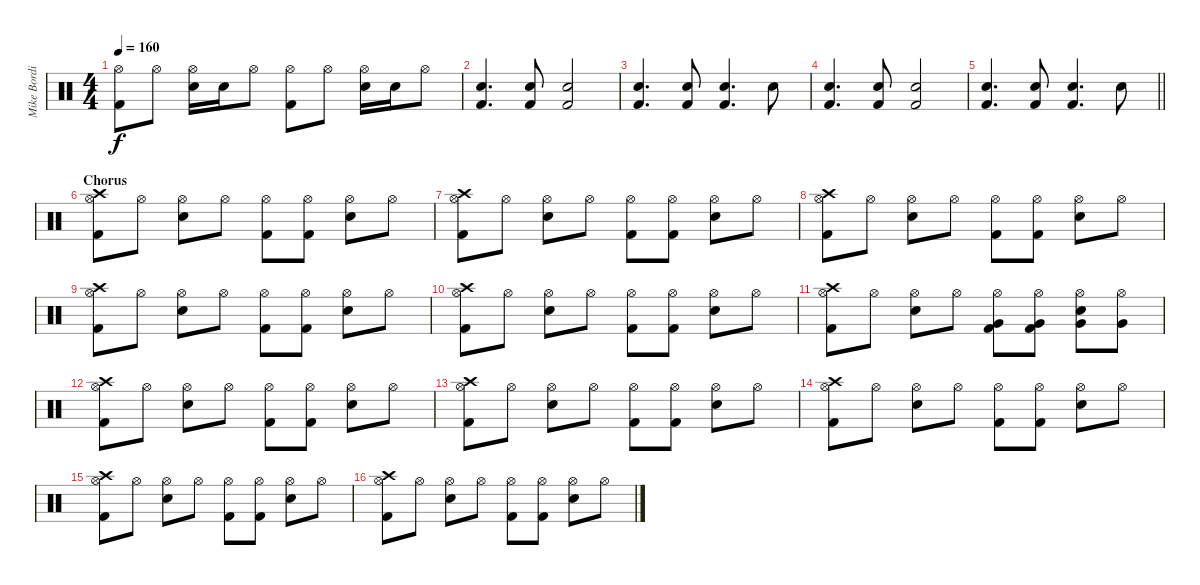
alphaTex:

\track ("Mike Bordin - Drums" "Mike Bordi") {instrument percussion}
\staff {score}
\articulation defaults
\ts (4 4)
\tempo 160
\clef neutral
\ks c
("Hi-Hat (open)" "Kick (hit) 2").8{dy f} "Hi-Hat (open)".8 ("Hi-Hat (open)" "Snare (hit) 2").16 "Snare (hit) 2".16 "Hi-Hat (open)".8 ("Hi-Hat (open)" "Kick (hit) 2").8 "Hi-Hat (open)".8 ("Hi-Hat (open)" "Snare (hit) 2").16 "Snare (hit) 2".16 "Hi-Hat (open)".8 |
("Snare (hit) 2" "Kick (hit) 2").4{d} ("Snare (hit) 2" "Kick (hit) 2").8 ("Snare (hit) 2" "Kick (hit) 2").2 |
("Snare (hit) 2" "Kick (hit) 2").4{d} ("Snare (hit) 2" "Kick (hit) 2").8 ("Snare (hit) 2" "Kick (hit) 2").4{d} "Snare (hit) 2".8 |
("Snare (hit) 2" "Kick (hit) 2").4{d} ("Snare (hit) 2" "Kick (hit) 2").8 ("Snare (hit) 2" "Kick (hit) 2").2 |
\barLineRight lightlight
("Snare (hit) 2" "Kick (hit) 2").4{d} ("Snare (hit) 2" "Kick (hit) 2").8 ("Snare (hit) 2" "Kick (hit) 2").4{d} "Snare (hit) 2".8 |
\section ("" "Chorus")
("Crash high (hit)" "Hi-Hat (open)" "Kick (hit) 2").8 "Hi-Hat (open)".8 ("Hi-Hat (open)" "Snare (hit) 2").8 "Hi-Hat (open)".8 ("Hi-Hat (open)" "Kick (hit) 2").8 ("Hi-Hat (open)" "Kick (hit) 2").8 ("Hi-Hat (open)" "Snare (hit) 2").8 "Hi-Hat (open)".8 |
("Crash high (hit)" "Hi-Hat (open)" "Kick (hit) 2").8 "Hi-Hat (open)".8 ("Hi-Hat (open)" "Snare (hit) 2").8 "Hi-Hat (open)".8 ("Hi-Hat (open)" "Kick (hit) 2").8 ("Hi-Hat (open)" "Kick (hit) 2").8 ("Hi-Hat (open)" "Snare (hit) 2").8 "Hi-Hat (open)".8 |
("Crash high (hit)" "Hi-Hat (open)" "Kick (hit) 2").8 "Hi-Hat (open)".8 ("Hi-Hat (open)" "Snare (hit) 2").8 "Hi-Hat (open)".8 ("Hi-Hat (open)" "Kick (hit) 2").8 ("Hi-Hat (open)" "Kick (hit) 2").8 ("Hi-Hat (open)" "Snare (hit) 2").8 "Hi-Hat (open)".8 |
("Crash high (hit)" "Hi-Hat (open)" "Kick (hit) 2").8 "Hi-Hat (open)".8 ("Hi-Hat (open)" "Snare (hit) 2").8 "Hi-Hat (open)".8 ("Hi-Hat (open)" "Kick (hit) 2").8 ("Hi-Hat (open)" "Kick (hit) 2").8 ("Hi-Hat (open)" "Snare (hit) 2").8 "Hi-Hat (open)".8 |
("Crash high (hit)" "Hi-Hat (open)" "Kick (hit) 2").8 "Hi-Hat (open)".8 ("Hi-Hat (open)" "Snare (hit) 2").8 "Hi-Hat (open)".8 ("Hi-Hat (open)" "Kick (hit) 2").8 ("Hi-Hat (open)" "Kick (hit) 2").8 ("Hi-Hat (open)" "Snare (hit) 2").8 "Hi-Hat (open)".8 |
("Crash high (hit)" "Hi-Hat (open)" "Kick (hit) 2").8 "Hi-Hat (open)".8 ("Hi-Hat (open)" "Snare (hit) 2").8 "Hi-Hat (open)".8 ("Hi-Hat (open)" "Very Low Tom (hit)" "Kick (hit) 2").8 ("Hi-Hat (open)" "Very Low Tom (hit)" "Kick (hit) 2").8 ("Hi-Hat (open)" "Snare (hit) 2" "Very Low Tom (hit)").8 ("Hi-Hat (open)" "Very Low Tom (hit)").8 |
("Crash high (hit)" "Hi-Hat (open)" "Kick (hit) 2").8 "Hi-Hat (open)".8 ("Hi-Hat (open)" "Snare (hit) 2").8 "Hi-Hat (open)".8 ("Hi-Hat (open)" "Kick (hit) 2").8 ("Hi-Hat (open)" "Kick (hit) 2").8 ("Hi-Hat (open)" "Snare (hit) 2").8 "Hi-Hat (open)".8 |
("Crash high (hit)" "Hi-Hat (open)" "Kick (hit) 2").8 "Hi-Hat (open)".8 ("Hi-Hat (open)" "Snare (hit) 2").8 "Hi-Hat (open)".8 ("Hi-Hat (open)" "Kick (hit) 2").8 ("Hi-Hat (open)" "Kick (hit) 2").8 ("Hi-Hat (open)" "Snare (hit) 2").8 "Hi-Hat (open)".8 |
("Crash high (hit)" "Hi-Hat (open)" "Kick (hit) 2").8 "Hi-Hat (open)".8 ("Hi-Hat (open)" "Snare (hit) 2").8 "Hi-Hat (open)".8 ("Hi-Hat (open)" "Kick (hit) 2").8 ("Hi-Hat (open)" "Kick (hit) 2").8 ("Hi-Hat (open)" "Snare (hit) 2").8 "Hi-Hat (open)".8 |
("Crash high (hit)" "Hi-Hat (open)" "Kick (hit) 2").8 "Hi-Hat (open)".8 ("Hi-Hat (open)" "Snare (hit) 2").8 "Hi-Hat (open)".8 ("Hi-Hat (open)" "Kick (hit) 2").8 ("Hi-Hat (open)" "Kick (hit) 2").8 ("Hi-Hat (open)" "Snare (hit) 2").8 "Hi-Hat (open)".8 |
("Crash high (hit)" "Hi-Hat (open)" "Kick (hit) 2").8 "Hi-Hat (open)".8 ("Hi-Hat (open)" "Snare (hit) 2").8 "Hi-Hat (open)".8 ("Hi-Hat (open)" "Kick (hit) 2").8 ("Hi-Hat (open)" "Kick (hit) 2").8 ("Hi-Hat (open)" "Snare (hit) 2").8 "Hi-Hat (open)".8
